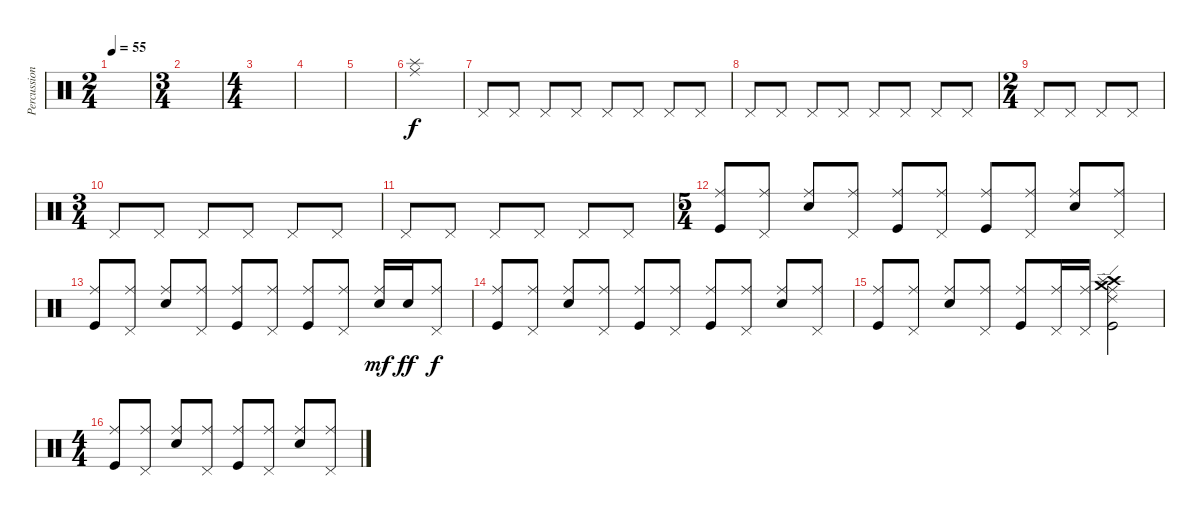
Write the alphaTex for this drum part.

\track ("Percussion" "Percussion") {instrument percussion}
\staff {score}
\articulation defaults
\ts (2 4)
\tempo 55
\clef neutral
\ks c
|
\ts (3 4)
|
\ts (4 4)
|
|
|
("Splash (hit)" "Ride (middle)").1 |
"Pedal Hi-Hat (hit)".8{volume 2} "Pedal Hi-Hat (hit)".8{volume 4} "Pedal Hi-Hat (hit)".8 "Pedal Hi-Hat (hit)".8 "Pedal Hi-Hat (hit)".8 "Pedal Hi-Hat (hit)".8 "Pedal Hi-Hat (hit)".8 "Pedal Hi-Hat (hit)".8 |
"Pedal Hi-Hat (hit)".8 "Pedal Hi-Hat (hit)".8 "Pedal Hi-Hat (hit)".8 "Pedal Hi-Hat (hit)".8 "Pedal Hi-Hat (hit)".8 "Pedal Hi-Hat (hit)".8 "Pedal Hi-Hat (hit)".8 "Pedal Hi-Hat (hit)".8 |
\ts (2 4)
"Pedal Hi-Hat (hit)".8 "Pedal Hi-Hat (hit)".8 "Pedal Hi-Hat (hit)".8 "Pedal Hi-Hat (hit)".8 |
\ts (3 4)
"Pedal Hi-Hat (hit)".8 "Pedal Hi-Hat (hit)".8 "Pedal Hi-Hat (hit)".8 "Pedal Hi-Hat (hit)".8 "Pedal Hi-Hat (hit)".8 "Pedal Hi-Hat (hit)".8 |
"Pedal Hi-Hat (hit)".8 "Pedal Hi-Hat (hit)".8 "Pedal Hi-Hat (hit)".8 "Pedal Hi-Hat (hit)".8 "Pedal Hi-Hat (hit)".8 "Pedal Hi-Hat (hit)".8 |
\ts (5 4)
("Ride (middle)" "Kick (hit)").8{volume 9} ("Ride (middle)" "Pedal Hi-Hat (hit)").8 ("Ride (middle)" "Electric Snare (hit)").8 ("Ride (middle)" "Pedal Hi-Hat (hit)").8 ("Ride (middle)" "Kick (hit)").8 ("Ride (middle)" "Pedal Hi-Hat (hit)").8 ("Ride (middle)" "Kick (hit)").8 ("Ride (middle)" "Pedal Hi-Hat (hit)").8 ("Ride (middle)" "Electric Snare (hit)").8 ("Ride (middle)" "Pedal Hi-Hat (hit)").8 |
("Ride (middle)" "Kick (hit)").8 ("Ride (middle)" "Pedal Hi-Hat (hit)").8 ("Ride (middle)" "Electric Snare (hit)").8 ("Ride (middle)" "Pedal Hi-Hat (hit)").8 ("Ride (middle)" "Kick (hit)").8 ("Ride (middle)" "Pedal Hi-Hat (hit)").8 ("Ride (middle)" "Kick (hit)").8 ("Ride (middle)" "Pedal Hi-Hat (hit)").8 ("Ride (middle)" "Electric Snare (hit)").16{dy mf} "Electric Snare (hit)".16{dy ff} ("Ride (middle)" "Pedal Hi-Hat (hit)").8{dy f} |
("Ride (middle)" "Kick (hit)").8{volume 9} ("Ride (middle)" "Pedal Hi-Hat (hit)").8 ("Ride (middle)" "Electric Snare (hit)").8 ("Ride (middle)" "Pedal Hi-Hat (hit)").8 ("Ride (middle)" "Kick (hit)").8 ("Ride (middle)" "Pedal Hi-Hat (hit)").8 ("Ride (middle)" "Kick (hit)").8 ("Ride (middle)" "Pedal Hi-Hat (hit)").8 ("Ride (middle)" "Electric Snare (hit)").8 ("Ride (middle)" "Pedal Hi-Hat (hit)").8 |
("Ride (middle)" "Kick (hit)").8 ("Ride (middle)" "Pedal Hi-Hat (hit)").8 ("Ride (middle)" "Electric Snare (hit)").8 ("Ride (middle)" "Pedal Hi-Hat (hit)").8 ("Ride (middle)" "Kick (hit)").8 ("Ride (middle)" "Pedal Hi-Hat (hit)").16 ("Ride (middle)" "Pedal Hi-Hat (hit)").16{volume 0} ("Crash high (hit)" "Splash (hit)" "Crash medium (hit)" "Ride (middle)" "Ride (edge) 2" "Kick (hit)").2{volume 16} |
\ts (4 4)
("Ride (middle)" "Kick (hit)").8{volume 9} ("Ride (middle)" "Pedal Hi-Hat (hit)").8 ("Ride (middle)" "Electric Snare (hit)").8 ("Ride (middle)" "Pedal Hi-Hat (hit)").8 ("Ride (middle)" "Kick (hit)").8 ("Ride (middle)" "Pedal Hi-Hat (hit)").8 ("Ride (middle)" "Electric Snare (hit)").8 ("Ride (middle)" "Pedal Hi-Hat (hit)").8
